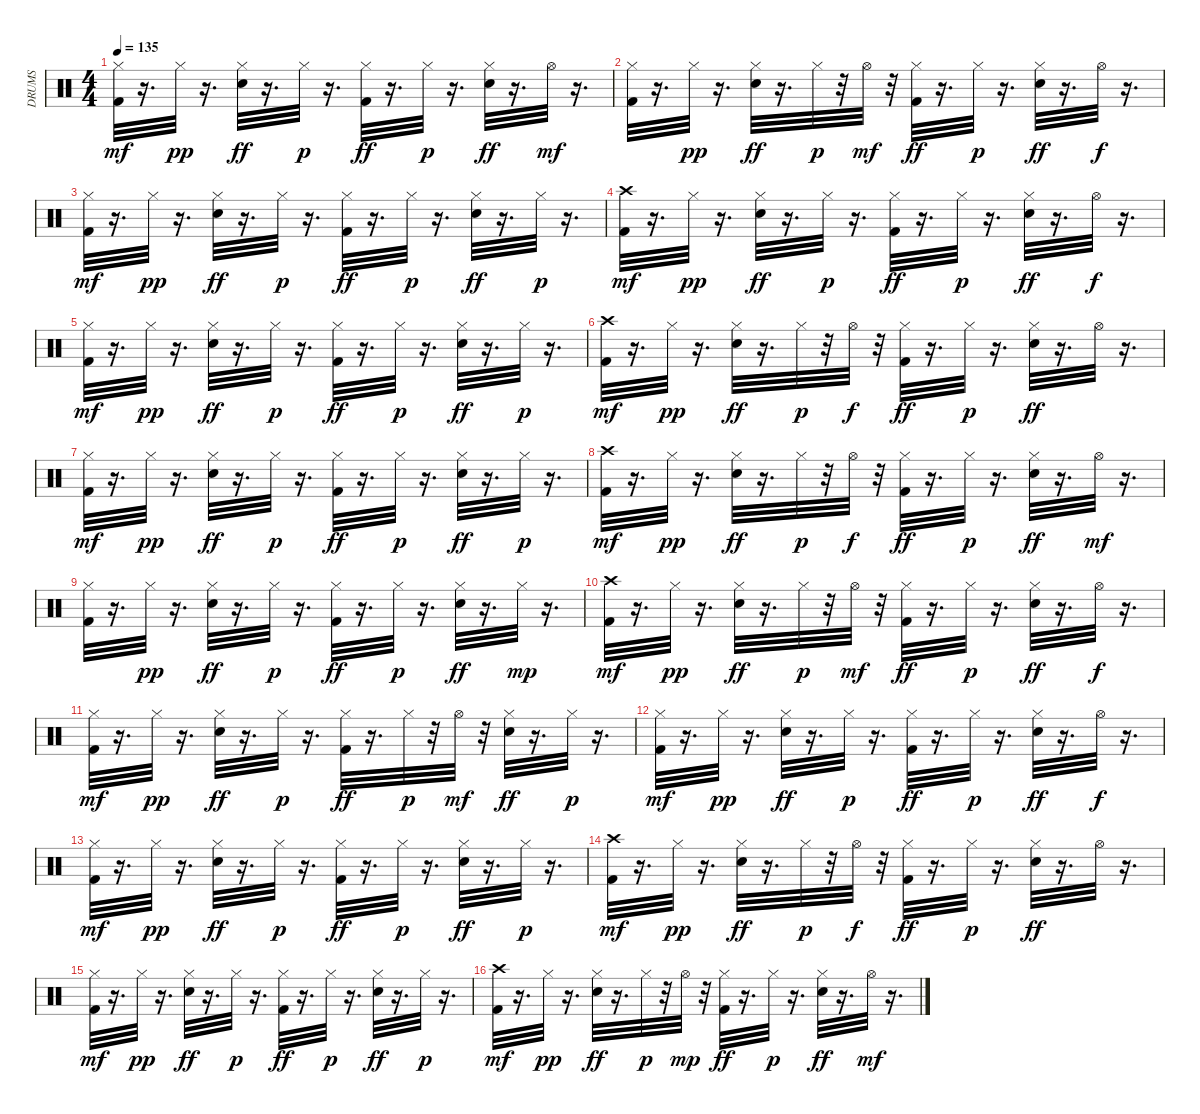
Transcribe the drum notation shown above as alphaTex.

\track ("DRUMS" "DRUMS") {instrument percussion}
\staff {score}
\articulation defaults
\ts (4 4)
\tempo 135
\clef neutral
\ks c
("Kick (hit) 2" "Hi-Hat (closed)").32{dy mf} r.16{d} "Hi-Hat (closed)".32{dy pp} r.16{d} ("Hi-Hat (closed)" "Electric Snare (hit)").32{dy ff} r.16{d} "Hi-Hat (closed)".32{dy p} r.16{d} ("Hi-Hat (closed)" "Kick (hit) 2").32{dy ff} r.16{d} "Hi-Hat (closed)".32{dy p} r.16{d} ("Electric Snare (hit)" "Hi-Hat (closed)").32{dy ff} r.16{d} "Hi-Hat (open)".32{dy mf} r.16{d} |
("Kick (hit) 2" "Hi-Hat (closed)").32 r.16{d} "Hi-Hat (closed)".32{dy pp} r.16{d} ("Hi-Hat (closed)" "Electric Snare (hit)").32{dy ff} r.16{d} "Hi-Hat (closed)".32{dy p} r.32 "Hi-Hat (open)".32{dy mf} r.32 ("Hi-Hat (closed)" "Kick (hit) 2").32{dy ff} r.16{d} "Hi-Hat (closed)".32{dy p} r.16{d} ("Electric Snare (hit)" "Hi-Hat (closed)").32{dy ff} r.16{d} "Hi-Hat (open)".32{dy f} r.16{d} |
("Kick (hit) 2" "Hi-Hat (closed)").32{dy mf} r.16{d} "Hi-Hat (closed)".32{dy pp} r.16{d} ("Hi-Hat (closed)" "Electric Snare (hit)").32{dy ff} r.16{d} "Hi-Hat (closed)".32{dy p} r.16{d} ("Hi-Hat (closed)" "Kick (hit) 2").32{dy ff} r.16{d} "Hi-Hat (closed)".32{dy p} r.16{d} ("Electric Snare (hit)" "Hi-Hat (closed)").32{dy ff} r.16{d} "Hi-Hat (closed)".32{dy p} r.16{d} |
("Kick (hit) 2" "Crash high (hit)").32{dy mf} r.16{d} "Hi-Hat (closed)".32{dy pp} r.16{d} ("Hi-Hat (closed)" "Electric Snare (hit)").32{dy ff} r.16{d} "Hi-Hat (closed)".32{dy p} r.16{d} ("Hi-Hat (closed)" "Kick (hit) 2").32{dy ff} r.16{d} "Hi-Hat (closed)".32{dy p} r.16{d} ("Electric Snare (hit)" "Hi-Hat (closed)").32{dy ff} r.16{d} "Hi-Hat (open)".32{dy f} r.16{d} |
("Kick (hit) 2" "Hi-Hat (closed)").32{dy mf} r.16{d} "Hi-Hat (closed)".32{dy pp} r.16{d} ("Hi-Hat (closed)" "Electric Snare (hit)").32{dy ff} r.16{d} "Hi-Hat (closed)".32{dy p} r.16{d} ("Hi-Hat (closed)" "Kick (hit) 2").32{dy ff} r.16{d} "Hi-Hat (closed)".32{dy p} r.16{d} ("Electric Snare (hit)" "Hi-Hat (closed)").32{dy ff} r.16{d} "Hi-Hat (closed)".32{dy p} r.16{d} |
("Kick (hit) 2" "Crash high (hit)").32{dy mf} r.16{d} "Hi-Hat (closed)".32{dy pp} r.16{d} ("Hi-Hat (closed)" "Electric Snare (hit)").32{dy ff} r.16{d} "Hi-Hat (closed)".32{dy p} r.32 "Hi-Hat (open)".32{dy f} r.32 ("Hi-Hat (closed)" "Kick (hit) 2").32{dy ff} r.16{d} "Hi-Hat (closed)".32{dy p} r.16{d} ("Electric Snare (hit)" "Hi-Hat (closed)").32{dy ff} r.16{d} "Hi-Hat (open)".32 r.16{d} |
("Kick (hit) 2" "Hi-Hat (closed)").32{dy mf} r.16{d} "Hi-Hat (closed)".32{dy pp} r.16{d} ("Hi-Hat (closed)" "Electric Snare (hit)").32{dy ff} r.16{d} "Hi-Hat (closed)".32{dy p} r.16{d} ("Hi-Hat (closed)" "Kick (hit) 2").32{dy ff} r.16{d} "Hi-Hat (closed)".32{dy p} r.16{d} ("Electric Snare (hit)" "Hi-Hat (closed)").32{dy ff} r.16{d} "Hi-Hat (closed)".32{dy p} r.16{d} |
("Kick (hit) 2" "Crash high (hit)").32{dy mf} r.16{d} "Hi-Hat (closed)".32{dy pp} r.16{d} ("Hi-Hat (closed)" "Electric Snare (hit)").32{dy ff} r.16{d} "Hi-Hat (closed)".32{dy p} r.32 "Hi-Hat (open)".32{dy f} r.32 ("Hi-Hat (closed)" "Kick (hit) 2").32{dy ff} r.16{d} "Hi-Hat (closed)".32{dy p} r.16{d} ("Electric Snare (hit)" "Hi-Hat (closed)").32{dy ff} r.16{d} "Hi-Hat (open)".32{dy mf} r.16{d} |
("Kick (hit) 2" "Hi-Hat (closed)").32 r.16{d} "Hi-Hat (closed)".32{dy pp} r.16{d} ("Hi-Hat (closed)" "Electric Snare (hit)").32{dy ff} r.16{d} "Hi-Hat (closed)".32{dy p} r.16{d} ("Hi-Hat (closed)" "Kick (hit) 2").32{dy ff} r.16{d} "Hi-Hat (closed)".32{dy p} r.16{d} ("Electric Snare (hit)" "Hi-Hat (closed)").32{dy ff} r.16{d} "Hi-Hat (closed)".32{dy mp} r.16{d} |
("Kick (hit) 2" "Crash high (hit)").32{dy mf} r.16{d} "Hi-Hat (closed)".32{dy pp} r.16{d} ("Hi-Hat (closed)" "Electric Snare (hit)").32{dy ff} r.16{d} "Hi-Hat (closed)".32{dy p} r.32 "Hi-Hat (open)".32{dy mf} r.32 ("Hi-Hat (closed)" "Kick (hit) 2").32{dy ff} r.16{d} "Hi-Hat (closed)".32{dy p} r.16{d} ("Electric Snare (hit)" "Hi-Hat (closed)").32{dy ff} r.16{d} "Hi-Hat (open)".32{dy f} r.16{d} |
("Kick (hit) 2" "Hi-Hat (closed)").32{dy mf} r.16{d} "Hi-Hat (closed)".32{dy pp} r.16{d} ("Hi-Hat (closed)" "Electric Snare (hit)").32{dy ff} r.16{d} "Hi-Hat (closed)".32{dy p} r.16{d} ("Hi-Hat (closed)" "Kick (hit) 2").32{dy ff} r.16{d} "Hi-Hat (closed)".32{dy p} r.32 "Hi-Hat (open)".32{dy mf} r.32 ("Electric Snare (hit)" "Hi-Hat (closed)").32{dy ff} r.16{d} "Hi-Hat (closed)".32{dy p} r.16{d} |
("Kick (hit) 2" "Hi-Hat (closed)").32{dy mf} r.16{d} "Hi-Hat (closed)".32{dy pp} r.16{d} ("Hi-Hat (closed)" "Electric Snare (hit)").32{dy ff} r.16{d} "Hi-Hat (closed)".32{dy p} r.16{d} ("Hi-Hat (closed)" "Kick (hit) 2").32{dy ff} r.16{d} "Hi-Hat (closed)".32{dy p} r.16{d} ("Electric Snare (hit)" "Hi-Hat (closed)").32{dy ff} r.16{d} "Hi-Hat (open)".32{dy f} r.16{d} |
("Kick (hit) 2" "Hi-Hat (closed)").32{dy mf} r.16{d} "Hi-Hat (closed)".32{dy pp} r.16{d} ("Hi-Hat (closed)" "Electric Snare (hit)").32{dy ff} r.16{d} "Hi-Hat (closed)".32{dy p} r.16{d} ("Hi-Hat (closed)" "Kick (hit) 2").32{dy ff} r.16{d} "Hi-Hat (closed)".32{dy p} r.16{d} ("Electric Snare (hit)" "Hi-Hat (closed)").32{dy ff} r.16{d} "Hi-Hat (closed)".32{dy p} r.16{d} |
("Kick (hit) 2" "Crash high (hit)").32{dy mf} r.16{d} "Hi-Hat (closed)".32{dy pp} r.16{d} ("Hi-Hat (closed)" "Electric Snare (hit)").32{dy ff} r.16{d} "Hi-Hat (closed)".32{dy p} r.32 "Hi-Hat (open)".32{dy f} r.32 ("Hi-Hat (closed)" "Kick (hit) 2").32{dy ff} r.16{d} "Hi-Hat (closed)".32{dy p} r.16{d} ("Electric Snare (hit)" "Hi-Hat (closed)").32{dy ff} r.16{d} "Hi-Hat (open)".32 r.16{d} |
("Kick (hit) 2" "Hi-Hat (closed)").32{dy mf} r.16{d} "Hi-Hat (closed)".32{dy pp} r.16{d} ("Hi-Hat (closed)" "Electric Snare (hit)").32{dy ff} r.16{d} "Hi-Hat (closed)".32{dy p} r.16{d} ("Hi-Hat (closed)" "Kick (hit) 2").32{dy ff} r.16{d} "Hi-Hat (closed)".32{dy p} r.16{d} ("Electric Snare (hit)" "Hi-Hat (closed)").32{dy ff} r.16{d} "Hi-Hat (closed)".32{dy p} r.16{d} |
("Kick (hit) 2" "Crash high (hit)").32{dy mf} r.16{d} "Hi-Hat (closed)".32{dy pp} r.16{d} ("Hi-Hat (closed)" "Electric Snare (hit)").32{dy ff} r.16{d} "Hi-Hat (closed)".32{dy p} r.32 "Hi-Hat (open)".32{dy mp} r.32 ("Hi-Hat (closed)" "Kick (hit) 2").32{dy ff} r.16{d} "Hi-Hat (closed)".32{dy p} r.16{d} ("Electric Snare (hit)" "Hi-Hat (closed)").32{dy ff} r.16{d} "Hi-Hat (open)".32{dy mf} r.16{d}
